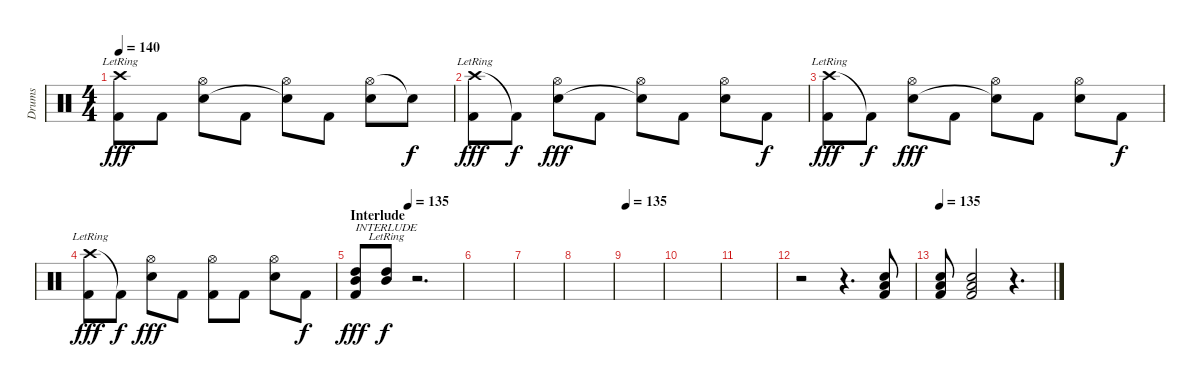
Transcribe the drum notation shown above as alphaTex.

\track ("Drums" "Drums") {instrument percussion}
\staff {score}
\articulation defaults
\ts (4 4)
\tempo 140
\clef neutral
\ks c
("Crash high (hit)"{lr} "Kick (hit) 2").8{dy fff} "Kick (hit) 2".8 ("Hi-Hat (open)" "Snare (hit) 2").8 "Kick (hit) 2".8 ("Hi-Hat (open)" "Snare (hit)"{t}).8 "Kick (hit) 2".8 ("Hi-Hat (open)" "Snare (hit) 2").8 "Snare (hit)"{t}.8{dy f} |
("Crash high (hit)"{lr} "Kick (hit) 2").8{dy fff} "Kick (hit) 2"{t}.8{dy f} ("Hi-Hat (open)" "Snare (hit) 2").8{dy fff} "Kick (hit) 2".8 ("Hi-Hat (open)" "Snare (hit)"{t}).8 "Kick (hit) 2".8 ("Hi-Hat (open)" "Snare (hit) 2").8 "Kick (hit) 2".8{dy f} |
("Crash high (hit)"{lr} "Kick (hit) 2").8{dy fff} "Kick (hit) 2"{t}.8{dy f} ("Hi-Hat (open)" "Snare (hit) 2").8{dy fff} "Kick (hit) 2".8 ("Hi-Hat (open)" "Snare (hit)"{t}).8 "Kick (hit) 2".8 ("Hi-Hat (open)" "Snare (hit) 2").8 "Kick (hit) 2".8{dy f} |
("Crash high (hit)"{lr} "Kick (hit) 2").8{dy fff} "Kick (hit) 2"{t}.8{dy f} ("Hi-Hat (open)" "Snare (hit) 2").8{dy fff} "Kick (hit) 2".8 ("Hi-Hat (open)" "Kick (hit) 2").8 "Kick (hit) 2".8 ("Hi-Hat (open)" "Snare (hit) 2").8 "Kick (hit) 2".8{dy f} |
\section ("" "Interlude")
\tempo (135 0.5)
("Mid Tom (hit)" "High Tom (hit)" "Kick (hit) 2").8{txt "INTERLUDE" dy fff} ("Mid Tom (hit)"{lr} "High Tom (hit)"{lr}).8{dy f} r.2{d} |
|
|
|
\tempo 135
|
|
|
r.2 r.4{d} ("Snare (hit) 2" "Low Tom (hit)" "Kick (hit) 2").8 |
\tempo 135
("Snare (hit) 2" "Low Tom (hit)" "Kick (hit) 2").8 ("Snare (hit) 2" "Low Tom (hit)" "Kick (hit) 2").2 r.4{d}
